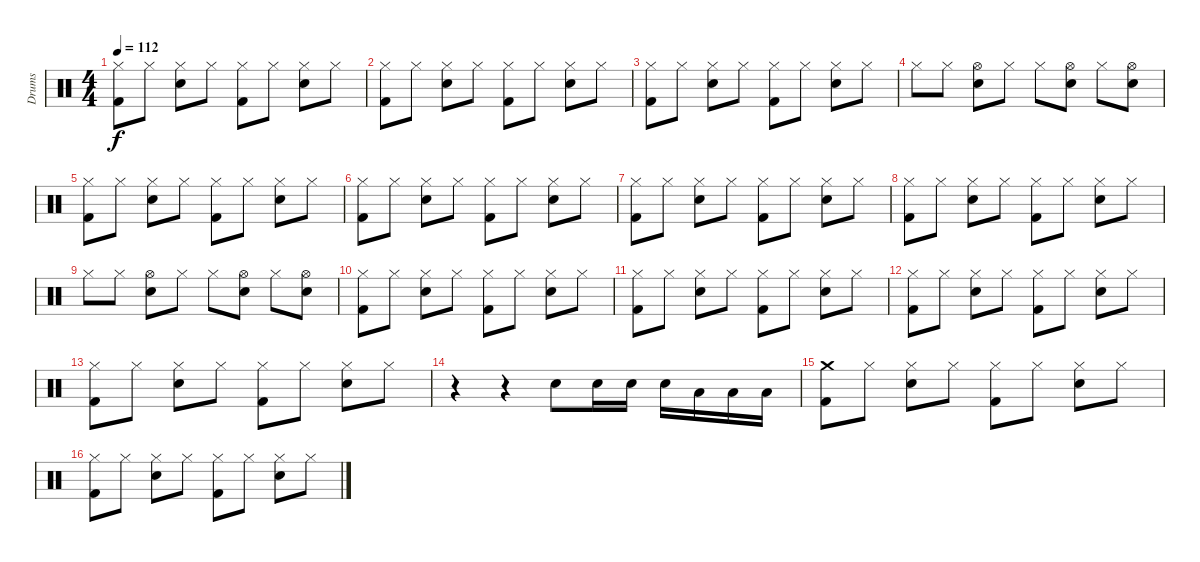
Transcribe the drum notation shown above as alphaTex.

\track ("Drums" "Drums") {instrument percussion}
\staff {score}
\articulation defaults
\ts (4 4)
\tempo 112
\clef neutral
\ks c
("Kick (hit) 2" "Hi-Hat (closed)").8{dy f} "Hi-Hat (closed)".8 ("Snare (hit) 2" "Hi-Hat (closed)").8 "Hi-Hat (closed)".8 ("Kick (hit) 2" "Hi-Hat (closed)").8 "Hi-Hat (closed)".8 ("Snare (hit) 2" "Hi-Hat (closed)").8 "Hi-Hat (closed)".8 |
("Kick (hit) 2" "Hi-Hat (closed)").8 "Hi-Hat (closed)".8 ("Snare (hit) 2" "Hi-Hat (closed)").8 "Hi-Hat (closed)".8 ("Kick (hit) 2" "Hi-Hat (closed)").8 "Hi-Hat (closed)".8 ("Snare (hit) 2" "Hi-Hat (closed)").8 "Hi-Hat (closed)".8 |
("Kick (hit) 2" "Hi-Hat (closed)").8 "Hi-Hat (closed)".8 ("Snare (hit) 2" "Hi-Hat (closed)").8 "Hi-Hat (closed)".8 ("Kick (hit) 2" "Hi-Hat (closed)").8 "Hi-Hat (closed)".8 ("Snare (hit) 2" "Hi-Hat (closed)").8 "Hi-Hat (closed)".8 |
"Hi-Hat (closed)".8 "Hi-Hat (closed)".8 ("Snare (hit) 2" "Hi-Hat (open)").8 "Hi-Hat (closed)".8 "Hi-Hat (closed)".8 ("Snare (hit) 2" "Hi-Hat (open)").8 "Hi-Hat (closed)".8 ("Snare (hit) 2" "Hi-Hat (open)").8 |
("Kick (hit) 2" "Hi-Hat (closed)").8 "Hi-Hat (closed)".8 ("Snare (hit) 2" "Hi-Hat (closed)").8 "Hi-Hat (closed)".8 ("Kick (hit) 2" "Hi-Hat (closed)").8 "Hi-Hat (closed)".8 ("Snare (hit) 2" "Hi-Hat (closed)").8 "Hi-Hat (closed)".8 |
("Kick (hit) 2" "Hi-Hat (closed)").8 "Hi-Hat (closed)".8 ("Snare (hit) 2" "Hi-Hat (closed)").8 "Hi-Hat (closed)".8 ("Kick (hit) 2" "Hi-Hat (closed)").8 "Hi-Hat (closed)".8 ("Snare (hit) 2" "Hi-Hat (closed)").8 "Hi-Hat (closed)".8 |
("Kick (hit) 2" "Hi-Hat (closed)").8 "Hi-Hat (closed)".8 ("Snare (hit) 2" "Hi-Hat (closed)").8 "Hi-Hat (closed)".8 ("Kick (hit) 2" "Hi-Hat (closed)").8 "Hi-Hat (closed)".8 ("Snare (hit) 2" "Hi-Hat (closed)").8 "Hi-Hat (closed)".8 |
("Kick (hit) 2" "Hi-Hat (closed)").8 "Hi-Hat (closed)".8 ("Snare (hit) 2" "Hi-Hat (closed)").8 "Hi-Hat (closed)".8 ("Kick (hit) 2" "Hi-Hat (closed)").8 "Hi-Hat (closed)".8 ("Snare (hit) 2" "Hi-Hat (closed)").8 "Hi-Hat (closed)".8 |
"Hi-Hat (closed)".8 "Hi-Hat (closed)".8 ("Snare (hit) 2" "Hi-Hat (open)").8 "Hi-Hat (closed)".8 "Hi-Hat (closed)".8 ("Snare (hit) 2" "Hi-Hat (open)").8 "Hi-Hat (closed)".8 ("Snare (hit) 2" "Hi-Hat (open)").8 |
("Kick (hit) 2" "Hi-Hat (closed)").8 "Hi-Hat (closed)".8 ("Snare (hit) 2" "Hi-Hat (closed)").8 "Hi-Hat (closed)".8 ("Kick (hit) 2" "Hi-Hat (closed)").8 "Hi-Hat (closed)".8 ("Snare (hit) 2" "Hi-Hat (closed)").8 "Hi-Hat (closed)".8 |
("Kick (hit) 2" "Hi-Hat (closed)").8 "Hi-Hat (closed)".8 ("Snare (hit) 2" "Hi-Hat (closed)").8 "Hi-Hat (closed)".8 ("Kick (hit) 2" "Hi-Hat (closed)").8 "Hi-Hat (closed)".8 ("Snare (hit) 2" "Hi-Hat (closed)").8 "Hi-Hat (closed)".8 |
("Kick (hit) 2" "Hi-Hat (closed)").8 "Hi-Hat (closed)".8 ("Snare (hit) 2" "Hi-Hat (closed)").8 "Hi-Hat (closed)".8 ("Kick (hit) 2" "Hi-Hat (closed)").8 "Hi-Hat (closed)".8 ("Snare (hit) 2" "Hi-Hat (closed)").8 "Hi-Hat (closed)".8 |
("Kick (hit) 2" "Hi-Hat (closed)").8 "Hi-Hat (closed)".8 ("Snare (hit) 2" "Hi-Hat (closed)").8 "Hi-Hat (closed)".8 ("Kick (hit) 2" "Hi-Hat (closed)").8 "Hi-Hat (closed)".8 ("Snare (hit) 2" "Hi-Hat (closed)").8 "Hi-Hat (closed)".8 |
r.4 r.4 "Snare (hit) 2".8 "Snare (hit) 2".16 "Snare (hit) 2".16 "Snare (hit) 2".16 "Low Tom (hit)".16 "Low Tom (hit)".16 "Low Tom (hit)".16 |
("Crash medium (hit)" "Kick (hit) 2").8 "Hi-Hat (closed)".8 ("Snare (hit) 2" "Hi-Hat (closed)").8 "Hi-Hat (closed)".8 ("Kick (hit) 2" "Hi-Hat (closed)").8 "Hi-Hat (closed)".8 ("Snare (hit) 2" "Hi-Hat (closed)").8 "Hi-Hat (closed)".8 |
("Kick (hit) 2" "Hi-Hat (closed)").8 "Hi-Hat (closed)".8 ("Snare (hit) 2" "Hi-Hat (closed)").8 "Hi-Hat (closed)".8 ("Kick (hit) 2" "Hi-Hat (closed)").8 "Hi-Hat (closed)".8 ("Snare (hit) 2" "Hi-Hat (closed)").8 "Hi-Hat (closed)".8
